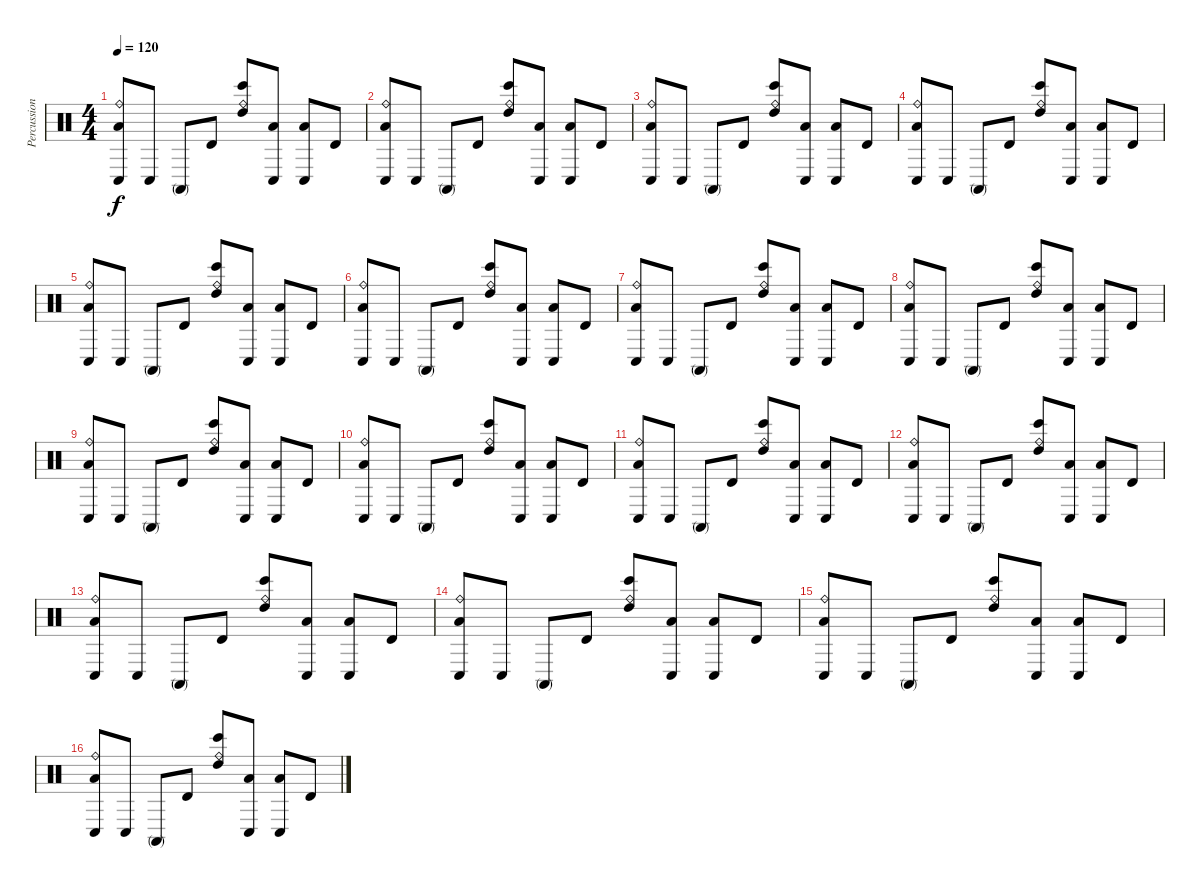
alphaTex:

\track ("Percussion" "Percussion") {instrument percussion}
\staff {score}
\articulation defaults
\ts (4 4)
\tempo 120
\clef neutral
\ks c
("Low Tom (hit)" "Conga low (hit)" "Ride (bell)").8{dy f} "Conga low (hit)".8 "Conga high (mute)".8 "Timbale high (hit)".8 ("High Tom (hit)" "Bongo High (hit)" "Ride (bell)").8 ("Low Tom (hit)" "Conga low (hit)").8 ("Low Tom (hit)" "Conga low (hit)").8 "Timbale high (hit)".8 |
("Low Tom (hit)" "Conga low (hit)" "Ride (bell)").8 "Conga low (hit)".8 "Conga high (mute)".8 "Timbale high (hit)".8 ("High Tom (hit)" "Bongo High (hit)" "Ride (bell)").8 ("Low Tom (hit)" "Conga low (hit)").8 ("Low Tom (hit)" "Conga low (hit)").8 "Timbale high (hit)".8 |
("Low Tom (hit)" "Conga low (hit)" "Ride (bell)").8 "Conga low (hit)".8 "Conga high (mute)".8 "Timbale high (hit)".8 ("High Tom (hit)" "Bongo High (hit)" "Ride (bell)").8 ("Low Tom (hit)" "Conga low (hit)").8 ("Low Tom (hit)" "Conga low (hit)").8 "Timbale high (hit)".8 |
("Low Tom (hit)" "Conga low (hit)" "Ride (bell)").8 "Conga low (hit)".8 "Conga high (mute)".8 "Timbale high (hit)".8 ("High Tom (hit)" "Bongo High (hit)" "Ride (bell)").8 ("Low Tom (hit)" "Conga low (hit)").8 ("Low Tom (hit)" "Conga low (hit)").8 "Timbale high (hit)".8 |
("Low Tom (hit)" "Conga low (hit)" "Ride (bell)").8 "Conga low (hit)".8 "Conga high (mute)".8 "Timbale high (hit)".8 ("High Tom (hit)" "Bongo High (hit)" "Ride (bell)").8 ("Low Tom (hit)" "Conga low (hit)").8 ("Low Tom (hit)" "Conga low (hit)").8 "Timbale high (hit)".8 |
("Low Tom (hit)" "Conga low (hit)" "Ride (bell)").8 "Conga low (hit)".8 "Conga high (mute)".8 "Timbale high (hit)".8 ("High Tom (hit)" "Bongo High (hit)" "Ride (bell)").8 ("Low Tom (hit)" "Conga low (hit)").8 ("Low Tom (hit)" "Conga low (hit)").8 "Timbale high (hit)".8 |
("Low Tom (hit)" "Conga low (hit)" "Ride (bell)").8 "Conga low (hit)".8 "Conga high (mute)".8 "Timbale high (hit)".8 ("High Tom (hit)" "Bongo High (hit)" "Ride (bell)").8 ("Low Tom (hit)" "Conga low (hit)").8 ("Low Tom (hit)" "Conga low (hit)").8 "Timbale high (hit)".8 |
("Low Tom (hit)" "Conga low (hit)" "Ride (bell)").8 "Conga low (hit)".8 "Conga high (mute)".8 "Timbale high (hit)".8 ("High Tom (hit)" "Bongo High (hit)" "Ride (bell)").8 ("Low Tom (hit)" "Conga low (hit)").8 ("Low Tom (hit)" "Conga low (hit)").8 "Timbale high (hit)".8 |
("Low Tom (hit)" "Conga low (hit)" "Ride (bell)").8 "Conga low (hit)".8 "Conga high (mute)".8 "Timbale high (hit)".8 ("High Tom (hit)" "Bongo High (hit)" "Ride (bell)").8 ("Low Tom (hit)" "Conga low (hit)").8 ("Low Tom (hit)" "Conga low (hit)").8 "Timbale high (hit)".8 |
("Low Tom (hit)" "Conga low (hit)" "Ride (bell)").8 "Conga low (hit)".8 "Conga high (mute)".8 "Timbale high (hit)".8 ("High Tom (hit)" "Bongo High (hit)" "Ride (bell)").8 ("Low Tom (hit)" "Conga low (hit)").8 ("Low Tom (hit)" "Conga low (hit)").8 "Timbale high (hit)".8 |
("Low Tom (hit)" "Conga low (hit)" "Ride (bell)").8 "Conga low (hit)".8 "Conga high (mute)".8 "Timbale high (hit)".8 ("High Tom (hit)" "Bongo High (hit)" "Ride (bell)").8 ("Low Tom (hit)" "Conga low (hit)").8 ("Low Tom (hit)" "Conga low (hit)").8 "Timbale high (hit)".8 |
("Low Tom (hit)" "Conga low (hit)" "Ride (bell)").8 "Conga low (hit)".8 "Conga high (mute)".8 "Timbale high (hit)".8 ("High Tom (hit)" "Bongo High (hit)" "Ride (bell)").8 ("Low Tom (hit)" "Conga low (hit)").8 ("Low Tom (hit)" "Conga low (hit)").8 "Timbale high (hit)".8 |
("Low Tom (hit)" "Conga low (hit)" "Ride (bell)").8 "Conga low (hit)".8 "Conga high (mute)".8 "Timbale high (hit)".8 ("High Tom (hit)" "Bongo High (hit)" "Ride (bell)").8 ("Low Tom (hit)" "Conga low (hit)").8 ("Low Tom (hit)" "Conga low (hit)").8 "Timbale high (hit)".8 |
("Low Tom (hit)" "Conga low (hit)" "Ride (bell)").8 "Conga low (hit)".8 "Conga high (mute)".8 "Timbale high (hit)".8 ("High Tom (hit)" "Bongo High (hit)" "Ride (bell)").8 ("Low Tom (hit)" "Conga low (hit)").8 ("Low Tom (hit)" "Conga low (hit)").8 "Timbale high (hit)".8 |
("Low Tom (hit)" "Conga low (hit)" "Ride (bell)").8 "Conga low (hit)".8 "Conga high (mute)".8 "Timbale high (hit)".8 ("High Tom (hit)" "Bongo High (hit)" "Ride (bell)").8 ("Low Tom (hit)" "Conga low (hit)").8 ("Low Tom (hit)" "Conga low (hit)").8 "Timbale high (hit)".8 |
("Low Tom (hit)" "Conga low (hit)" "Ride (bell)").8 "Conga low (hit)".8 "Conga high (mute)".8 "Timbale high (hit)".8 ("High Tom (hit)" "Bongo High (hit)" "Ride (bell)").8 ("Low Tom (hit)" "Conga low (hit)").8 ("Low Tom (hit)" "Conga low (hit)").8 "Timbale high (hit)".8
